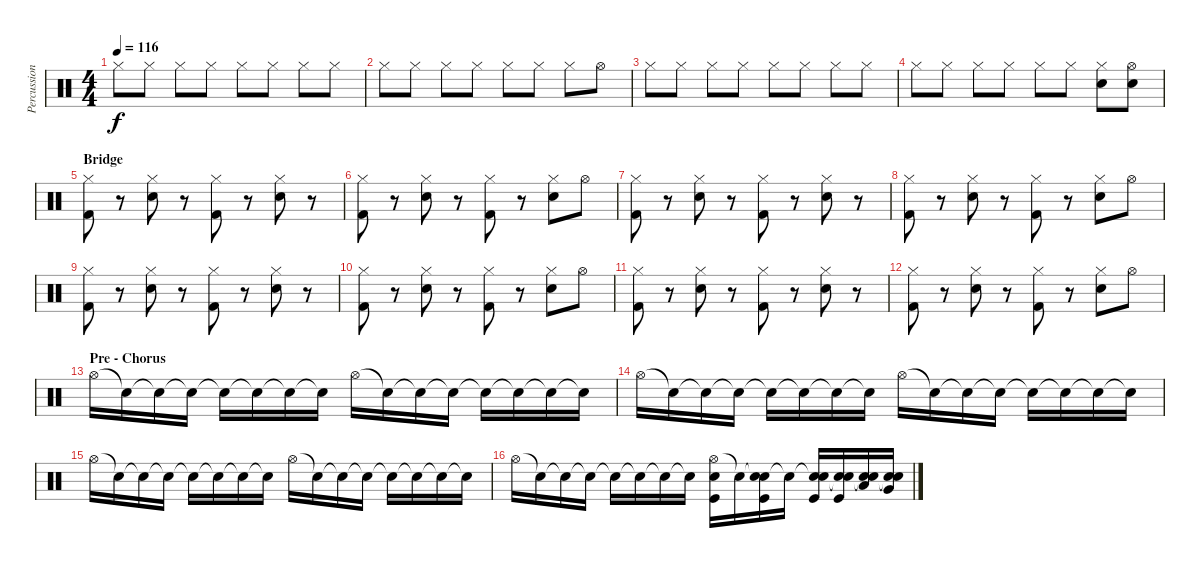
\track ("Percussion" "Percussion") {instrument percussion}
\staff {score}
\articulation defaults
\ts (4 4)
\tempo 116
\clef neutral
\ks c "Hi-Hat (closed)".8{dy f} "Hi-Hat (closed)".8 "Hi-Hat (closed)".8 "Hi-Hat (closed)".8 "Hi-Hat (closed)".8 "Hi-Hat (closed)".8 "Hi-Hat (closed)".8 "Hi-Hat (closed)".8
|
"Hi-Hat (closed)".8 "Hi-Hat (closed)".8 "Hi-Hat (closed)".8 "Hi-Hat (closed)".8 "Hi-Hat (closed)".8 "Hi-Hat (closed)".8 "Hi-Hat (closed)".8 "Hi-Hat (open)".8 |
"Hi-Hat (closed)".8 "Hi-Hat (closed)".8 "Hi-Hat (closed)".8 "Hi-Hat (closed)".8 "Hi-Hat (closed)".8 "Hi-Hat (closed)".8 "Hi-Hat (closed)".8 "Hi-Hat (closed)".8 |
"Hi-Hat (closed)".8 "Hi-Hat (closed)".8 "Hi-Hat (closed)".8 "Hi-Hat (closed)".8 "Hi-Hat (closed)".8 "Hi-Hat (closed)".8 ("Hi-Hat (closed)" "Snare (hit) 2").8 ("Hi-Hat (open)" "Snare (hit) 2").8 |
\section ("" "Bridge")
("Hi-Hat (closed)" "Kick (hit) 2").8 r.8 ("Hi-Hat (closed)" "Snare (hit) 2").8 r.8 ("Hi-Hat (closed)" "Kick (hit) 2").8 r.8 ("Hi-Hat (closed)" "Snare (hit) 2").8 r.8 |
("Hi-Hat (closed)" "Kick (hit) 2").8 r.8 ("Hi-Hat (closed)" "Snare (hit) 2").8 r.8 ("Hi-Hat (closed)" "Kick (hit) 2").8 r.8 ("Hi-Hat (closed)" "Snare (hit) 2").8 "Hi-Hat (open)".8 |
("Hi-Hat (closed)" "Kick (hit) 2").8 r.8 ("Hi-Hat (closed)" "Snare (hit) 2").8 r.8 ("Hi-Hat (closed)" "Kick (hit) 2").8 r.8 ("Hi-Hat (closed)" "Snare (hit) 2").8 r.8 |
("Hi-Hat (closed)" "Kick (hit) 2").8 r.8 ("Hi-Hat (closed)" "Snare (hit) 2").8 r.8 ("Hi-Hat (closed)" "Kick (hit) 2").8 r.8 ("Hi-Hat (closed)" "Snare (hit) 2").8 "Hi-Hat (open)".8 |
("Hi-Hat (closed)" "Kick (hit) 2").8 r.8 ("Hi-Hat (closed)" "Snare (hit) 2").8 r.8 ("Hi-Hat (closed)" "Kick (hit) 2").8 r.8 ("Hi-Hat (closed)" "Snare (hit) 2").8 r.8 |
("Hi-Hat (closed)" "Kick (hit) 2").8 r.8 ("Hi-Hat (closed)" "Snare (hit) 2").8 r.8 ("Hi-Hat (closed)" "Kick (hit) 2").8 r.8 ("Hi-Hat (closed)" "Snare (hit) 2").8 "Hi-Hat (open)".8 |
("Hi-Hat (closed)" "Kick (hit) 2").8 r.8 ("Hi-Hat (closed)" "Snare (hit) 2").8 r.8 ("Hi-Hat (closed)" "Kick (hit) 2").8 r.8 ("Hi-Hat (closed)" "Snare (hit) 2").8 r.8 |
("Hi-Hat (closed)" "Kick (hit) 2").8 r.8 ("Hi-Hat (closed)" "Snare (hit) 2").8 r.8 ("Hi-Hat (closed)" "Kick (hit) 2").8 r.8 ("Hi-Hat (closed)" "Snare (hit) 2").8 "Hi-Hat (open)".8 |
\section ("" "Pre - Chorus")
"Hi-Hat (open)".16 "Snare (hit)"{t}.16 "Snare (hit)"{t}.16 "Snare (hit)"{t}.16 "Snare (hit)"{t}.16 "Snare (hit)"{t}.16 "Snare (hit)"{t}.16 "Snare (hit)"{t}.16 "Hi-Hat (open)".16 "Snare (hit)"{t}.16 "Snare (hit)"{t}.16 "Snare (hit)"{t}.16 "Snare (hit)"{t}.16 "Snare (hit)"{t}.16 "Snare (hit)"{t}.16 "Snare (hit)"{t}.16 |
"Hi-Hat (open)".16 "Snare (hit)"{t}.16 "Snare (hit)"{t}.16 "Snare (hit)"{t}.16 "Snare (hit)"{t}.16 "Snare (hit)"{t}.16 "Snare (hit)"{t}.16 "Snare (hit)"{t}.16 "Hi-Hat (open)".16 "Snare (hit)"{t}.16 "Snare (hit)"{t}.16 "Snare (hit)"{t}.16 "Snare (hit)"{t}.16 "Snare (hit)"{t}.16 "Snare (hit)"{t}.16 "Snare (hit)"{t}.16 |
"Hi-Hat (open)".16 "Snare (hit)"{t}.16 "Snare (hit)"{t}.16 "Snare (hit)"{t}.16 "Snare (hit)"{t}.16 "Snare (hit)"{t}.16 "Snare (hit)"{t}.16 "Snare (hit)"{t}.16 "Hi-Hat (open)".16 "Snare (hit)"{t}.16 "Snare (hit)"{t}.16 "Snare (hit)"{t}.16 "Snare (hit)"{t}.16 "Snare (hit)"{t}.16 "Snare (hit)"{t}.16 "Snare (hit)"{t}.16 |
"Hi-Hat (open)".16 "Snare (hit)"{t}.16 "Snare (hit)"{t}.16 "Snare (hit)"{t}.16 "Snare (hit)"{t}.16 "Snare (hit)"{t}.16 "Snare (hit)"{t}.16 "Snare (hit)"{t}.16 ("Hi-Hat (open)" "Snare (hit) 2" "Kick (hit)").16 "Snare (hit)"{t}.16 ("Snare (hit)"{t} "Snare (hit) 2" "Kick (hit)").16 "Snare (hit)"{t}.16 ("Snare (hit)"{t} "Snare (hit) 2" "Kick (hit)").16 ("Snare (hit)"{t} "Snare (hit) 2" "Kick (hit)").16 ("Snare (hit)"{t} "Snare (hit) 2" "Low Tom (hit)").16 ("Snare (hit)"{t} "Snare (hit) 2" "Very Low Tom (hit)").16
